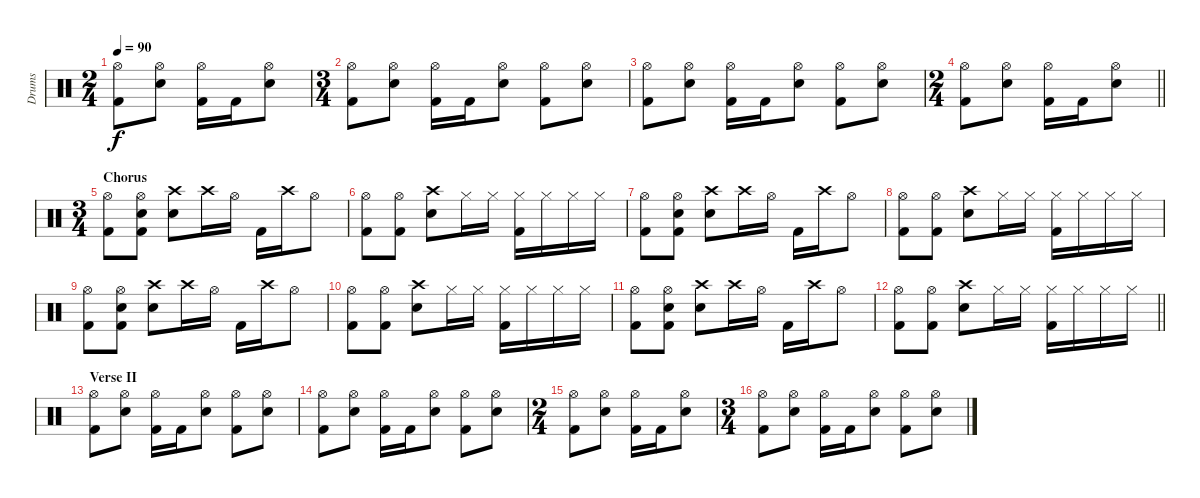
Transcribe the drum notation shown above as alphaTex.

\track ("Drums" "Drums") {instrument percussion}
\staff {score}
\articulation defaults
\ts (2 4)
\tempo 90
\clef neutral
\ks c
("Hi-Hat (open)" "Kick (hit) 2").8{dy f} ("Hi-Hat (open)" "Snare (hit) 2").8 ("Hi-Hat (open)" "Kick (hit) 2").16 "Kick (hit) 2".16 ("Hi-Hat (open)" "Snare (hit) 2").8 |
\ts (3 4)
("Hi-Hat (open)" "Kick (hit) 2").8 ("Hi-Hat (open)" "Snare (hit) 2").8 ("Hi-Hat (open)" "Kick (hit) 2").16 "Kick (hit) 2".16 ("Hi-Hat (open)" "Snare (hit) 2").8 ("Hi-Hat (open)" "Kick (hit) 2").8 ("Hi-Hat (open)" "Snare (hit) 2").8 |
("Hi-Hat (open)" "Kick (hit) 2").8 ("Hi-Hat (open)" "Snare (hit) 2").8 ("Hi-Hat (open)" "Kick (hit) 2").16 "Kick (hit) 2".16 ("Hi-Hat (open)" "Snare (hit) 2").8 ("Hi-Hat (open)" "Kick (hit) 2").8 ("Hi-Hat (open)" "Snare (hit) 2").8 |
\ts (2 4)
\barLineRight lightlight
("Hi-Hat (open)" "Kick (hit) 2").8 ("Hi-Hat (open)" "Snare (hit) 2").8 ("Hi-Hat (open)" "Kick (hit) 2").16 "Kick (hit) 2".16 ("Hi-Hat (open)" "Snare (hit) 2").8 |
\ts (3 4)
\section ("" "Chorus")
("Hi-Hat (open)" "Kick (hit) 2").8 ("Hi-Hat (open)" "Snare (hit) 2" "Kick (hit) 2").8 ("Crash high (hit)" "Snare (hit) 2").8 "Crash high (hit)".16 "Hi-Hat (open)".16 "Kick (hit) 2".16 "Crash high (hit)".16 "Hi-Hat (open)".8 |
("Hi-Hat (open)" "Kick (hit) 2").8 ("Hi-Hat (open)" "Kick (hit) 2").8 ("Crash high (hit)" "Snare (hit) 2").8 "Hi-Hat (closed)".16 "Hi-Hat (closed)".16 ("Hi-Hat (closed)" "Kick (hit) 2").16 "Hi-Hat (closed)".16 "Hi-Hat (closed)".16 "Hi-Hat (closed)".16 |
("Hi-Hat (open)" "Kick (hit) 2").8 ("Hi-Hat (open)" "Snare (hit) 2" "Kick (hit) 2").8 ("Crash high (hit)" "Snare (hit) 2").8 "Crash high (hit)".16 "Hi-Hat (open)".16 "Kick (hit) 2".16 "Crash high (hit)".16 "Hi-Hat (open)".8 |
("Hi-Hat (open)" "Kick (hit) 2").8 ("Hi-Hat (open)" "Kick (hit) 2").8 ("Crash high (hit)" "Snare (hit) 2").8 "Hi-Hat (closed)".16 "Hi-Hat (closed)".16 ("Hi-Hat (closed)" "Kick (hit) 2").16 "Hi-Hat (closed)".16 "Hi-Hat (closed)".16 "Hi-Hat (closed)".16 |
("Hi-Hat (open)" "Kick (hit) 2").8 ("Hi-Hat (open)" "Snare (hit) 2" "Kick (hit) 2").8 ("Crash high (hit)" "Snare (hit) 2").8 "Crash high (hit)".16 "Hi-Hat (open)".16 "Kick (hit) 2".16 "Crash high (hit)".16 "Hi-Hat (open)".8 |
("Hi-Hat (open)" "Kick (hit) 2").8 ("Hi-Hat (open)" "Kick (hit) 2").8 ("Crash high (hit)" "Snare (hit) 2").8 "Hi-Hat (closed)".16 "Hi-Hat (closed)".16 ("Hi-Hat (closed)" "Kick (hit) 2").16 "Hi-Hat (closed)".16 "Hi-Hat (closed)".16 "Hi-Hat (closed)".16 |
("Hi-Hat (open)" "Kick (hit) 2").8 ("Hi-Hat (open)" "Snare (hit) 2" "Kick (hit) 2").8 ("Crash high (hit)" "Snare (hit) 2").8 "Crash high (hit)".16 "Hi-Hat (open)".16 "Kick (hit) 2".16 "Crash high (hit)".16 "Hi-Hat (open)".8 |
\barLineRight lightlight
("Hi-Hat (open)" "Kick (hit) 2").8 ("Hi-Hat (open)" "Kick (hit) 2").8 ("Crash high (hit)" "Snare (hit) 2").8 "Hi-Hat (closed)".16 "Hi-Hat (closed)".16 ("Hi-Hat (closed)" "Kick (hit) 2").16 "Hi-Hat (closed)".16 "Hi-Hat (closed)".16 "Hi-Hat (closed)".16 |
\section ("" "Verse II")
("Hi-Hat (open)" "Kick (hit) 2").8 ("Hi-Hat (open)" "Snare (hit) 2").8 ("Hi-Hat (open)" "Kick (hit) 2").16 "Kick (hit) 2".16 ("Hi-Hat (open)" "Snare (hit) 2").8 ("Hi-Hat (open)" "Kick (hit) 2").8 ("Hi-Hat (open)" "Snare (hit) 2").8 |
("Hi-Hat (open)" "Kick (hit) 2").8 ("Hi-Hat (open)" "Snare (hit) 2").8 ("Hi-Hat (open)" "Kick (hit) 2").16 "Kick (hit) 2".16 ("Hi-Hat (open)" "Snare (hit) 2").8 ("Hi-Hat (open)" "Kick (hit) 2").8 ("Hi-Hat (open)" "Snare (hit) 2").8 |
\ts (2 4)
("Hi-Hat (open)" "Kick (hit) 2").8 ("Hi-Hat (open)" "Snare (hit) 2").8 ("Hi-Hat (open)" "Kick (hit) 2").16 "Kick (hit) 2".16 ("Hi-Hat (open)" "Snare (hit) 2").8 |
\ts (3 4)
("Hi-Hat (open)" "Kick (hit) 2").8 ("Hi-Hat (open)" "Snare (hit) 2").8 ("Hi-Hat (open)" "Kick (hit) 2").16 "Kick (hit) 2".16 ("Hi-Hat (open)" "Snare (hit) 2").8 ("Hi-Hat (open)" "Kick (hit) 2").8 ("Hi-Hat (open)" "Snare (hit) 2").8
